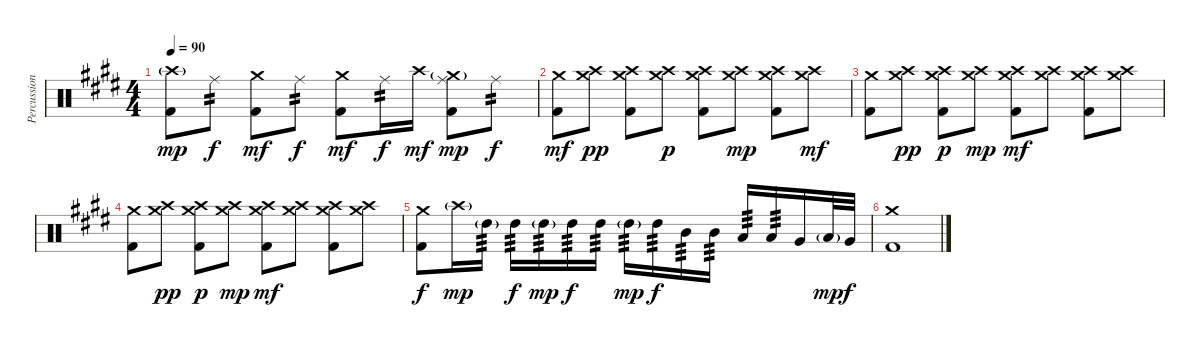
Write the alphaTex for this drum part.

\track ("Percussion" "Percussion") {instrument percussion}
\staff {score}
\articulation defaults
\ts (4 4)
\tempo 90
\clef neutral
\ks c#minor
("Crash high (hit)"{g} "Kick (hit) 2").8{dy mp} "Ride (middle)".8{tp 2 dy f} ("Crash medium (hit)" "Kick (hit) 2").8{dy mf} "Ride (middle)".8{tp 2 dy f} ("Crash medium (hit)" "Kick (hit) 2").8{dy mf} "Ride (middle)".16{tp 2 dy f} "Crash high (hit)".16{dy mf} ("Ride (middle)" "Crash medium (hit)"{g} "Kick (hit) 2").8{dy mp} "Ride (middle)".8{tp 2 dy f} |
("Crash medium (hit)" "Kick (hit) 2").8{dy mf} ("Crash medium (hit)" "Crash high (hit)").8{dy pp} ("Crash medium (hit)" "Crash high (hit)" "Kick (hit) 2").8 ("Crash medium (hit)" "Crash high (hit)").8{dy p} ("Crash medium (hit)" "Crash high (hit)" "Kick (hit) 2").8 ("Crash medium (hit)" "Crash high (hit)").8{dy mp} ("Crash medium (hit)" "Crash high (hit)" "Kick (hit) 2").8 ("Crash medium (hit)" "Crash high (hit)").8{dy mf} |
("Crash medium (hit)" "Kick (hit) 2").8 ("Crash medium (hit)" "Crash high (hit)").8{dy pp} ("Crash medium (hit)" "Crash high (hit)" "Kick (hit) 2").8{dy p} ("Crash medium (hit)" "Crash high (hit)").8{dy mp} ("Crash medium (hit)" "Crash high (hit)" "Kick (hit) 2").8{dy mf} ("Crash medium (hit)" "Crash high (hit)").8 ("Crash medium (hit)" "Crash high (hit)" "Kick (hit) 2").8 ("Crash medium (hit)" "Crash high (hit)").8 |
("Crash medium (hit)" "Kick (hit) 2").8 ("Crash medium (hit)" "Crash high (hit)").8{dy pp} ("Crash medium (hit)" "Crash high (hit)" "Kick (hit) 2").8{dy p} ("Crash medium (hit)" "Crash high (hit)").8{dy mp} ("Crash medium (hit)" "Crash high (hit)" "Kick (hit) 2").8{dy mf} ("Crash medium (hit)" "Crash high (hit)").8 ("Crash medium (hit)" "Crash high (hit)" "Kick (hit) 2").8 ("Crash medium (hit)" "Crash high (hit)").8 |
("Crash medium (hit)" "Kick (hit) 2").8{dy f} "Crash high (hit)"{g}.16{dy mp} "High Tom (hit)"{g}.16{tp 3} "High Tom (hit)".16{tp 3 dy f} "High Tom (hit)"{g}.16{tp 3 dy mp} "High Tom (hit)".16{tp 3 dy f} "High Tom (hit)".16{tp 3} "High Tom (hit)"{g}.16{tp 3 dy mp} "High Tom (hit)".16{tp 3 dy f} "Mid Tom (hit)".16{tp 3} "Mid Tom (hit)".16{tp 3} "Low Tom (hit)".16{tp 3} "Low Tom (hit)".16{tp 3} "Very Low Tom (hit)".16 "Low Tom (hit)"{g}.32{dy mp} "Very Low Tom (hit)".32{dy f} |
("Crash medium (hit)" "Kick (hit) 2").1
